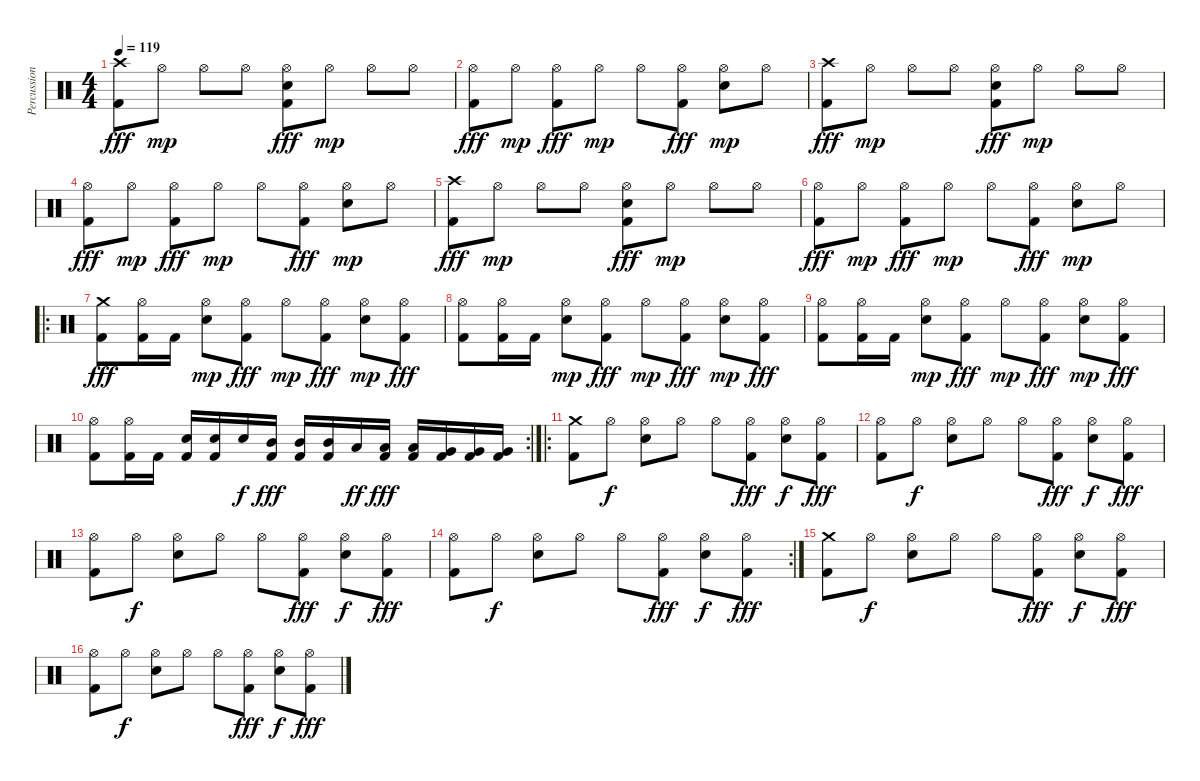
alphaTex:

\track ("Percussion" "Percussion") {instrument percussion}
\staff {score}
\articulation defaults
\ts (4 4)
\tempo 119
\clef neutral
\ks c
("Crash high (hit)" "Kick (hit) 2").8{dy fff} "Hi-Hat (open)".8{dy mp} "Hi-Hat (open)".8 "Hi-Hat (open)".8 ("Hi-Hat (open)" "Electric Snare (hit)" "Kick (hit) 2").8{dy fff} "Hi-Hat (open)".8{dy mp} "Hi-Hat (open)".8 "Hi-Hat (open)".8 |
("Hi-Hat (open)" "Kick (hit) 2").8{dy fff} "Hi-Hat (open)".8{dy mp} ("Hi-Hat (open)" "Kick (hit) 2").8{dy fff} "Hi-Hat (open)".8{dy mp} "Hi-Hat (open)".8 ("Hi-Hat (open)" "Kick (hit) 2").8{dy fff} ("Hi-Hat (open)" "Electric Snare (hit)").8{dy mp} "Hi-Hat (open)".8 |
("Crash high (hit)" "Kick (hit) 2").8{dy fff} "Hi-Hat (open)".8{dy mp} "Hi-Hat (open)".8 "Hi-Hat (open)".8 ("Hi-Hat (open)" "Electric Snare (hit)" "Kick (hit) 2").8{dy fff} "Hi-Hat (open)".8{dy mp} "Hi-Hat (open)".8 "Hi-Hat (open)".8 |
("Hi-Hat (open)" "Kick (hit) 2").8{dy fff} "Hi-Hat (open)".8{dy mp} ("Hi-Hat (open)" "Kick (hit) 2").8{dy fff} "Hi-Hat (open)".8{dy mp} "Hi-Hat (open)".8 ("Hi-Hat (open)" "Kick (hit) 2").8{dy fff} ("Hi-Hat (open)" "Electric Snare (hit)").8{dy mp} "Hi-Hat (open)".8 |
("Crash high (hit)" "Kick (hit) 2").8{dy fff} "Hi-Hat (open)".8{dy mp} "Hi-Hat (open)".8 "Hi-Hat (open)".8 ("Hi-Hat (open)" "Electric Snare (hit)" "Kick (hit) 2").8{dy fff} "Hi-Hat (open)".8{dy mp} "Hi-Hat (open)".8 "Hi-Hat (open)".8 |
("Hi-Hat (open)" "Kick (hit) 2").8{dy fff} "Hi-Hat (open)".8{dy mp} ("Hi-Hat (open)" "Kick (hit) 2").8{dy fff} "Hi-Hat (open)".8{dy mp} "Hi-Hat (open)".8 ("Hi-Hat (open)" "Kick (hit) 2").8{dy fff} ("Hi-Hat (open)" "Electric Snare (hit)").8{dy mp} "Hi-Hat (open)".8 |
\ro
("Crash medium (hit)" "Kick (hit) 2").8{dy fff} ("Hi-Hat (open)" "Kick (hit) 2").16 "Kick (hit) 2".16 ("Hi-Hat (open)" "Electric Snare (hit)").8{dy mp} ("Hi-Hat (open)" "Kick (hit) 2").8{dy fff} "Hi-Hat (open)".8{dy mp} ("Hi-Hat (open)" "Kick (hit) 2").8{dy fff} ("Hi-Hat (open)" "Electric Snare (hit)").8{dy mp} ("Hi-Hat (open)" "Kick (hit) 2").8{dy fff} |
("Hi-Hat (open)" "Kick (hit) 2").8 ("Hi-Hat (open)" "Kick (hit) 2").16 "Kick (hit) 2".16 ("Hi-Hat (open)" "Electric Snare (hit)").8{dy mp} ("Hi-Hat (open)" "Kick (hit) 2").8{dy fff} "Hi-Hat (open)".8{dy mp} ("Hi-Hat (open)" "Kick (hit) 2").8{dy fff} ("Hi-Hat (open)" "Electric Snare (hit)").8{dy mp} ("Hi-Hat (open)" "Kick (hit) 2").8{dy fff} |
("Hi-Hat (open)" "Kick (hit) 2").8 ("Hi-Hat (open)" "Kick (hit) 2").16 "Kick (hit) 2".16 ("Hi-Hat (open)" "Electric Snare (hit)").8{dy mp} ("Hi-Hat (open)" "Kick (hit) 2").8{dy fff} "Hi-Hat (open)".8{dy mp} ("Hi-Hat (open)" "Kick (hit) 2").8{dy fff} ("Hi-Hat (open)" "Electric Snare (hit)").8{dy mp} ("Hi-Hat (open)" "Kick (hit) 2").8{dy fff} |
\rc 2
("Hi-Hat (open)" "Kick (hit) 2").8 ("Hi-Hat (open)" "Kick (hit) 2").16 "Kick (hit) 2".16 ("Electric Snare (hit)" "Kick (hit) 2").16 ("Electric Snare (hit)" "Kick (hit) 2").16 "Electric Snare (hit)".16{dy f} ("Mid Tom (hit)" "Kick (hit) 2").16{dy fff} ("Mid Tom (hit)" "Kick (hit) 2").16 ("Mid Tom (hit)" "Kick (hit) 2").16 "Low Tom (hit)".16{dy ff} ("Low Tom (hit)" "Kick (hit) 2").16{dy fff} ("Low Tom (hit)" "Kick (hit) 2").16 ("Very Low Tom (hit)" "Kick (hit) 2").16 ("Very Low Tom (hit)" "Kick (hit) 2").16 ("Very Low Tom (hit)" "Kick (hit) 2").16 |
\ro
("Crash medium (hit)" "Kick (hit) 2").8 "Hi-Hat (open)".8{dy f} ("Hi-Hat (open)" "Electric Snare (hit)").8 "Hi-Hat (open)".8 "Hi-Hat (open)".8 ("Hi-Hat (open)" "Kick (hit) 2").8{dy fff} ("Hi-Hat (open)" "Electric Snare (hit)").8{dy f} ("Hi-Hat (open)" "Kick (hit) 2").8{dy fff} |
("Hi-Hat (open)" "Kick (hit) 2").8 "Hi-Hat (open)".8{dy f} ("Hi-Hat (open)" "Electric Snare (hit)").8 "Hi-Hat (open)".8 "Hi-Hat (open)".8 ("Hi-Hat (open)" "Kick (hit) 2").8{dy fff} ("Hi-Hat (open)" "Electric Snare (hit)").8{dy f} ("Hi-Hat (open)" "Kick (hit) 2").8{dy fff} |
("Hi-Hat (open)" "Kick (hit) 2").8 "Hi-Hat (open)".8{dy f} ("Hi-Hat (open)" "Electric Snare (hit)").8 "Hi-Hat (open)".8 "Hi-Hat (open)".8 ("Hi-Hat (open)" "Kick (hit) 2").8{dy fff} ("Hi-Hat (open)" "Electric Snare (hit)").8{dy f} ("Hi-Hat (open)" "Kick (hit) 2").8{dy fff} |
\rc 2
("Hi-Hat (open)" "Kick (hit) 2").8 "Hi-Hat (open)".8{dy f} ("Hi-Hat (open)" "Electric Snare (hit)").8 "Hi-Hat (open)".8 "Hi-Hat (open)".8 ("Hi-Hat (open)" "Kick (hit) 2").8{dy fff} ("Hi-Hat (open)" "Electric Snare (hit)").8{dy f} ("Hi-Hat (open)" "Kick (hit) 2").8{dy fff} |
("Crash medium (hit)" "Kick (hit) 2").8 "Hi-Hat (open)".8{dy f} ("Hi-Hat (open)" "Electric Snare (hit)").8 "Hi-Hat (open)".8 "Hi-Hat (open)".8 ("Hi-Hat (open)" "Kick (hit) 2").8{dy fff} ("Hi-Hat (open)" "Electric Snare (hit)").8{dy f} ("Hi-Hat (open)" "Kick (hit) 2").8{dy fff} |
("Hi-Hat (open)" "Kick (hit) 2").8 "Hi-Hat (open)".8{dy f} ("Hi-Hat (open)" "Electric Snare (hit)").8 "Hi-Hat (open)".8 "Hi-Hat (open)".8 ("Hi-Hat (open)" "Kick (hit) 2").8{dy fff} ("Hi-Hat (open)" "Electric Snare (hit)").8{dy f} ("Hi-Hat (open)" "Kick (hit) 2").8{dy fff}
